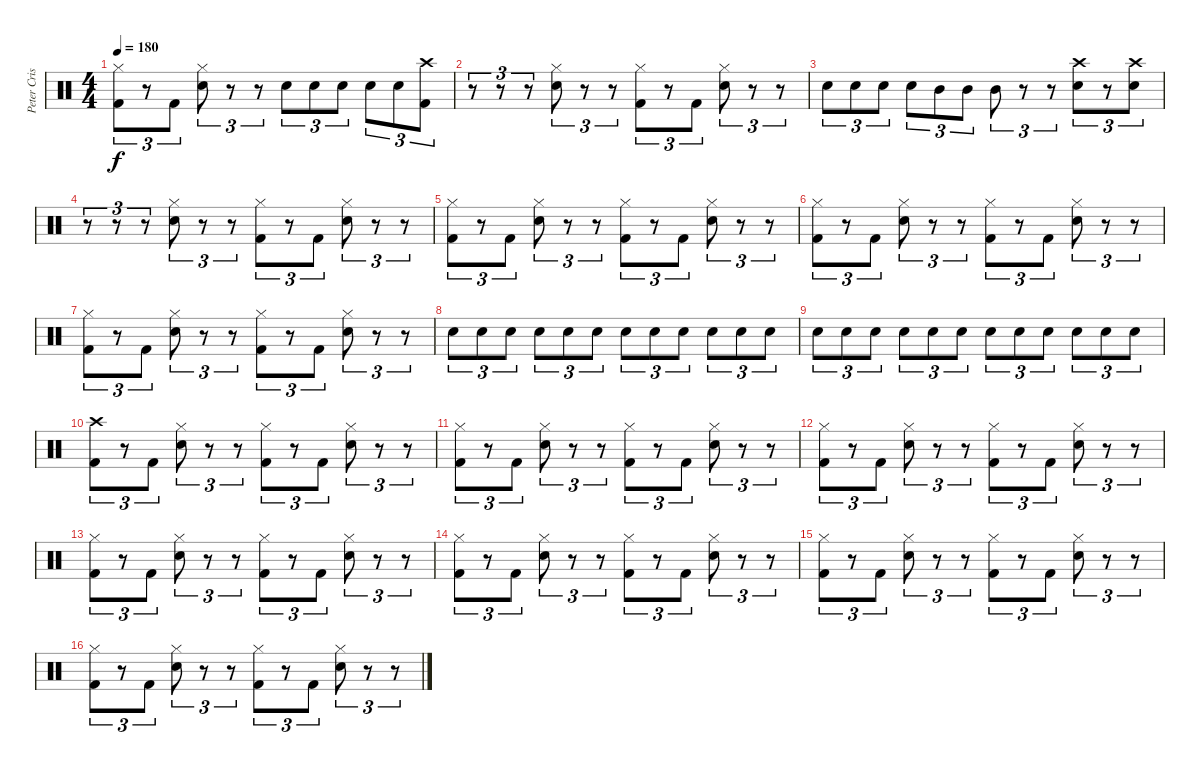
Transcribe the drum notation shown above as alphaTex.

\track ("Peter Criss" "Peter Cris") {instrument percussion}
\staff {score}
\articulation defaults
\ts (4 4)
\tempo 180
\clef neutral
\ks c
("Hi-Hat (closed)" "Kick (hit) 2").8{tu (3 2) dy f} r.8{tu (3 2)} "Kick (hit) 2".8{tu (3 2)} ("Hi-Hat (closed)" "Electric Snare (hit)").8{tu (3 2)} r.8{tu (3 2)} r.8{tu (3 2)} "Electric Snare (hit)".8{tu (3 2)} "Electric Snare (hit)".8{tu (3 2)} "Electric Snare (hit)".8{tu (3 2)} "Electric Snare (hit)".8{tu (3 2)} "Electric Snare (hit)".8{tu (3 2)} ("Crash high (hit)" "Kick (hit) 2").8{tu (3 2)} |
r.8{tu (3 2)} r.8{tu (3 2)} r.8{tu (3 2)} ("Hi-Hat (closed)" "Electric Snare (hit)").8{tu (3 2)} r.8{tu (3 2)} r.8{tu (3 2)} ("Hi-Hat (closed)" "Kick (hit) 2").8{tu (3 2)} r.8{tu (3 2)} "Kick (hit) 2".8{tu (3 2)} ("Hi-Hat (closed)" "Electric Snare (hit)").8{tu (3 2)} r.8{tu (3 2)} r.8{tu (3 2)} |
"Electric Snare (hit)".8{tu (3 2)} "Electric Snare (hit)".8{tu (3 2)} "Electric Snare (hit)".8{tu (3 2)} "Electric Snare (hit)".8{tu (3 2)} "Mid Tom (hit)".8{tu (3 2)} "Mid Tom (hit)".8{tu (3 2)} "Mid Tom (hit)".8{tu (3 2)} r.8{tu (3 2)} r.8{tu (3 2)} ("Crash high (hit)" "Electric Snare (hit)").8{tu (3 2)} r.8{tu (3 2)} ("Crash high (hit)" "Electric Snare (hit)").8{tu (3 2)} |
r.8{tu (3 2)} r.8{tu (3 2)} r.8{tu (3 2)} ("Hi-Hat (closed)" "Electric Snare (hit)").8{tu (3 2)} r.8{tu (3 2)} r.8{tu (3 2)} ("Hi-Hat (closed)" "Kick (hit) 2").8{tu (3 2)} r.8{tu (3 2)} "Kick (hit) 2".8{tu (3 2)} ("Hi-Hat (closed)" "Electric Snare (hit)").8{tu (3 2)} r.8{tu (3 2)} r.8{tu (3 2)} |
("Hi-Hat (closed)" "Kick (hit) 2").8{tu (3 2)} r.8{tu (3 2)} "Kick (hit) 2".8{tu (3 2)} ("Hi-Hat (closed)" "Electric Snare (hit)").8{tu (3 2)} r.8{tu (3 2)} r.8{tu (3 2)} ("Hi-Hat (closed)" "Kick (hit) 2").8{tu (3 2)} r.8{tu (3 2)} "Kick (hit) 2".8{tu (3 2)} ("Hi-Hat (closed)" "Electric Snare (hit)").8{tu (3 2)} r.8{tu (3 2)} r.8{tu (3 2)} |
("Hi-Hat (closed)" "Kick (hit) 2").8{tu (3 2)} r.8{tu (3 2)} "Kick (hit) 2".8{tu (3 2)} ("Hi-Hat (closed)" "Electric Snare (hit)").8{tu (3 2)} r.8{tu (3 2)} r.8{tu (3 2)} ("Hi-Hat (closed)" "Kick (hit) 2").8{tu (3 2)} r.8{tu (3 2)} "Kick (hit) 2".8{tu (3 2)} ("Hi-Hat (closed)" "Electric Snare (hit)").8{tu (3 2)} r.8{tu (3 2)} r.8{tu (3 2)} |
("Hi-Hat (closed)" "Kick (hit) 2").8{tu (3 2)} r.8{tu (3 2)} "Kick (hit) 2".8{tu (3 2)} ("Hi-Hat (closed)" "Electric Snare (hit)").8{tu (3 2)} r.8{tu (3 2)} r.8{tu (3 2)} ("Hi-Hat (closed)" "Kick (hit) 2").8{tu (3 2)} r.8{tu (3 2)} "Kick (hit) 2".8{tu (3 2)} ("Hi-Hat (closed)" "Electric Snare (hit)").8{tu (3 2)} r.8{tu (3 2)} r.8{tu (3 2)} |
"Electric Snare (hit)".8{tu (3 2)} "Electric Snare (hit)".8{tu (3 2)} "Electric Snare (hit)".8{tu (3 2)} "Electric Snare (hit)".8{tu (3 2)} "Electric Snare (hit)".8{tu (3 2)} "Electric Snare (hit)".8{tu (3 2)} "Electric Snare (hit)".8{tu (3 2)} "Electric Snare (hit)".8{tu (3 2)} "Electric Snare (hit)".8{tu (3 2)} "Electric Snare (hit)".8{tu (3 2)} "Electric Snare (hit)".8{tu (3 2)} "Electric Snare (hit)".8{tu (3 2)} |
"Electric Snare (hit)".8{tu (3 2)} "Electric Snare (hit)".8{tu (3 2)} "Electric Snare (hit)".8{tu (3 2)} "Electric Snare (hit)".8{tu (3 2)} "Electric Snare (hit)".8{tu (3 2)} "Electric Snare (hit)".8{tu (3 2)} "Electric Snare (hit)".8{tu (3 2)} "Electric Snare (hit)".8{tu (3 2)} "Electric Snare (hit)".8{tu (3 2)} "Electric Snare (hit)".8{tu (3 2)} "Electric Snare (hit)".8{tu (3 2)} "Electric Snare (hit)".8{tu (3 2)} |
("Crash high (hit)" "Kick (hit) 2").8{tu (3 2)} r.8{tu (3 2)} "Kick (hit) 2".8{tu (3 2)} ("Hi-Hat (closed)" "Electric Snare (hit)").8{tu (3 2)} r.8{tu (3 2)} r.8{tu (3 2)} ("Hi-Hat (closed)" "Kick (hit) 2").8{tu (3 2)} r.8{tu (3 2)} "Kick (hit) 2".8{tu (3 2)} ("Hi-Hat (closed)" "Electric Snare (hit)").8{tu (3 2)} r.8{tu (3 2)} r.8{tu (3 2)} |
("Hi-Hat (closed)" "Kick (hit) 2").8{tu (3 2)} r.8{tu (3 2)} "Kick (hit) 2".8{tu (3 2)} ("Hi-Hat (closed)" "Electric Snare (hit)").8{tu (3 2)} r.8{tu (3 2)} r.8{tu (3 2)} ("Hi-Hat (closed)" "Kick (hit) 2").8{tu (3 2)} r.8{tu (3 2)} "Kick (hit) 2".8{tu (3 2)} ("Hi-Hat (closed)" "Electric Snare (hit)").8{tu (3 2)} r.8{tu (3 2)} r.8{tu (3 2)} |
("Hi-Hat (closed)" "Kick (hit) 2").8{tu (3 2)} r.8{tu (3 2)} "Kick (hit) 2".8{tu (3 2)} ("Hi-Hat (closed)" "Electric Snare (hit)").8{tu (3 2)} r.8{tu (3 2)} r.8{tu (3 2)} ("Hi-Hat (closed)" "Kick (hit) 2").8{tu (3 2)} r.8{tu (3 2)} "Kick (hit) 2".8{tu (3 2)} ("Hi-Hat (closed)" "Electric Snare (hit)").8{tu (3 2)} r.8{tu (3 2)} r.8{tu (3 2)} |
("Hi-Hat (closed)" "Kick (hit) 2").8{tu (3 2)} r.8{tu (3 2)} "Kick (hit) 2".8{tu (3 2)} ("Hi-Hat (closed)" "Electric Snare (hit)").8{tu (3 2)} r.8{tu (3 2)} r.8{tu (3 2)} ("Hi-Hat (closed)" "Kick (hit) 2").8{tu (3 2)} r.8{tu (3 2)} "Kick (hit) 2".8{tu (3 2)} ("Hi-Hat (closed)" "Electric Snare (hit)").8{tu (3 2)} r.8{tu (3 2)} r.8{tu (3 2)} |
("Hi-Hat (closed)" "Kick (hit) 2").8{tu (3 2)} r.8{tu (3 2)} "Kick (hit) 2".8{tu (3 2)} ("Hi-Hat (closed)" "Electric Snare (hit)").8{tu (3 2)} r.8{tu (3 2)} r.8{tu (3 2)} ("Hi-Hat (closed)" "Kick (hit) 2").8{tu (3 2)} r.8{tu (3 2)} "Kick (hit) 2".8{tu (3 2)} ("Hi-Hat (closed)" "Electric Snare (hit)").8{tu (3 2)} r.8{tu (3 2)} r.8{tu (3 2)} |
("Hi-Hat (closed)" "Kick (hit) 2").8{tu (3 2)} r.8{tu (3 2)} "Kick (hit) 2".8{tu (3 2)} ("Hi-Hat (closed)" "Electric Snare (hit)").8{tu (3 2)} r.8{tu (3 2)} r.8{tu (3 2)} ("Hi-Hat (closed)" "Kick (hit) 2").8{tu (3 2)} r.8{tu (3 2)} "Kick (hit) 2".8{tu (3 2)} ("Hi-Hat (closed)" "Electric Snare (hit)").8{tu (3 2)} r.8{tu (3 2)} r.8{tu (3 2)} |
("Hi-Hat (closed)" "Kick (hit) 2").8{tu (3 2)} r.8{tu (3 2)} "Kick (hit) 2".8{tu (3 2)} ("Hi-Hat (closed)" "Electric Snare (hit)").8{tu (3 2)} r.8{tu (3 2)} r.8{tu (3 2)} ("Hi-Hat (closed)" "Kick (hit) 2").8{tu (3 2)} r.8{tu (3 2)} "Kick (hit) 2".8{tu (3 2)} ("Hi-Hat (closed)" "Electric Snare (hit)").8{tu (3 2)} r.8{tu (3 2)} r.8{tu (3 2)}
